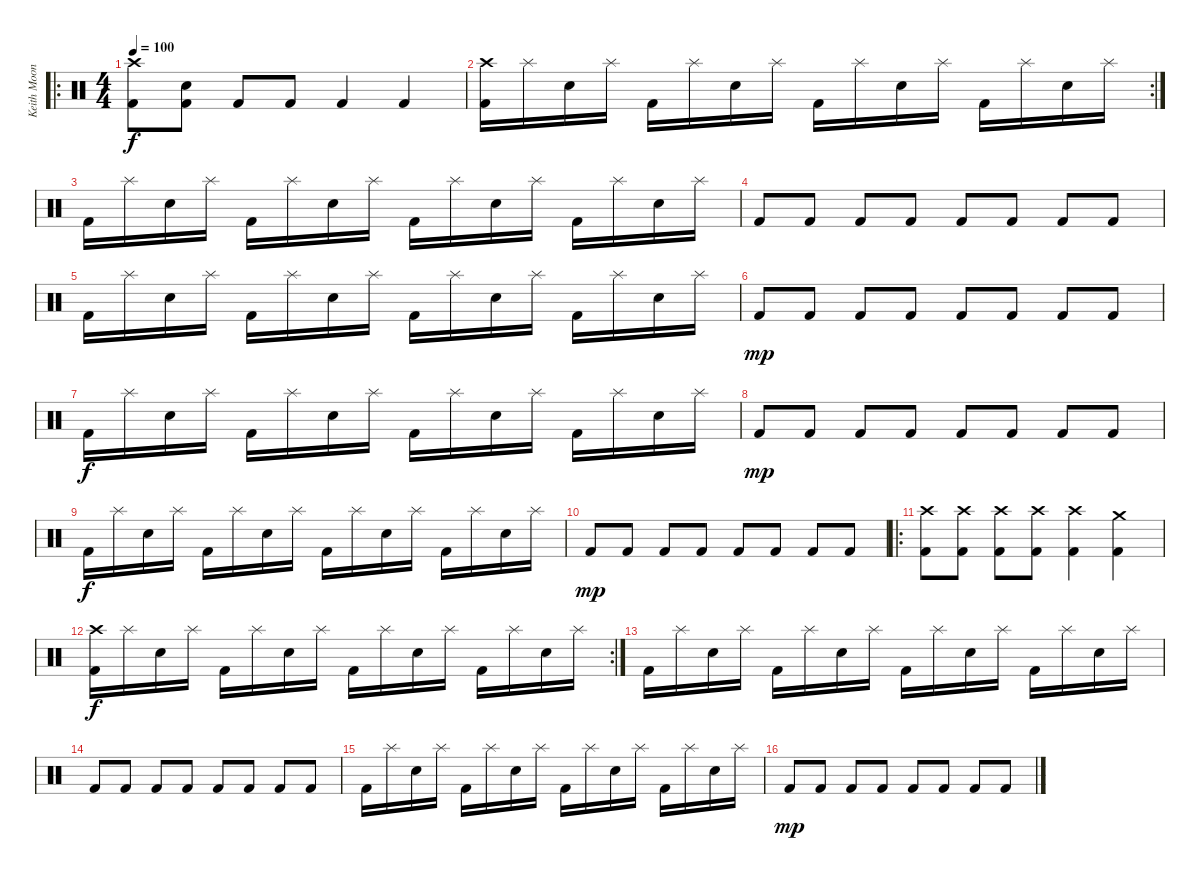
\track ("Keith Moon - Drums" "Keith Moon") {instrument percussion}
\staff {score}
\articulation defaults
\ro
\ts (4 4)
\tempo 100
\clef neutral
\ks c
("Kick (hit) 2" "Crash high (hit)").8{dy f} ("Kick (hit) 2" "Electric Snare (hit)").8 "Kick (hit) 2".8 "Kick (hit) 2".8 "Kick (hit) 2".4 "Kick (hit) 2".4 |
\rc 2
("Kick (hit) 2" "Crash high (hit)").16 "Splash (hit)".16 "Electric Snare (hit)".16 "Splash (hit)".16 "Kick (hit) 2".16 "Splash (hit)".16 "Electric Snare (hit)".16 "Splash (hit)".16 "Kick (hit) 2".16 "Splash (hit)".16 "Electric Snare (hit)".16 "Splash (hit)".16 "Kick (hit) 2".16 "Splash (hit)".16 "Electric Snare (hit)".16 "Splash (hit)".16 |
"Kick (hit) 2".16 "Splash (hit)".16 "Electric Snare (hit)".16 "Splash (hit)".16 "Kick (hit) 2".16 "Splash (hit)".16 "Electric Snare (hit)".16 "Splash (hit)".16 "Kick (hit) 2".16 "Splash (hit)".16 "Electric Snare (hit)".16 "Splash (hit)".16 "Kick (hit) 2".16 "Splash (hit)".16 "Electric Snare (hit)".16 "Splash (hit)".16 |
"Kick (hit) 2".8 "Kick (hit) 2".8 "Kick (hit) 2".8 "Kick (hit) 2".8 "Kick (hit) 2".8 "Kick (hit) 2".8 "Kick (hit) 2".8 "Kick (hit) 2".8 |
"Kick (hit) 2".16 "Splash (hit)".16 "Electric Snare (hit)".16 "Splash (hit)".16 "Kick (hit) 2".16 "Splash (hit)".16 "Electric Snare (hit)".16 "Splash (hit)".16 "Kick (hit) 2".16 "Splash (hit)".16 "Electric Snare (hit)".16 "Splash (hit)".16 "Kick (hit) 2".16 "Splash (hit)".16 "Electric Snare (hit)".16 "Splash (hit)".16 |
"Kick (hit) 2".8{dy mp} "Kick (hit) 2".8 "Kick (hit) 2".8 "Kick (hit) 2".8 "Kick (hit) 2".8 "Kick (hit) 2".8 "Kick (hit) 2".8 "Kick (hit) 2".8 |
"Kick (hit) 2".16{dy f} "Splash (hit)".16 "Electric Snare (hit)".16 "Splash (hit)".16 "Kick (hit) 2".16 "Splash (hit)".16 "Electric Snare (hit)".16 "Splash (hit)".16 "Kick (hit) 2".16 "Splash (hit)".16 "Electric Snare (hit)".16 "Splash (hit)".16 "Kick (hit) 2".16 "Splash (hit)".16 "Electric Snare (hit)".16 "Splash (hit)".16 |
"Kick (hit) 2".8{dy mp} "Kick (hit) 2".8 "Kick (hit) 2".8 "Kick (hit) 2".8 "Kick (hit) 2".8 "Kick (hit) 2".8 "Kick (hit) 2".8 "Kick (hit) 2".8 |
"Kick (hit) 2".16{dy f} "Splash (hit)".16 "Electric Snare (hit)".16 "Splash (hit)".16 "Kick (hit) 2".16 "Splash (hit)".16 "Electric Snare (hit)".16 "Splash (hit)".16 "Kick (hit) 2".16 "Splash (hit)".16 "Electric Snare (hit)".16 "Splash (hit)".16 "Kick (hit) 2".16 "Splash (hit)".16 "Electric Snare (hit)".16 "Splash (hit)".16 |
"Kick (hit) 2".8{dy mp} "Kick (hit) 2".8 "Kick (hit) 2".8 "Kick (hit) 2".8 "Kick (hit) 2".8 "Kick (hit) 2".8 "Kick (hit) 2".8 "Kick (hit) 2".8 |
\ro
("Kick (hit) 2" "Crash high (hit)").8 ("Kick (hit) 2" "Crash high (hit)").8 ("Kick (hit) 2" "Crash high (hit)").8 ("Kick (hit) 2" "Crash high (hit)").8 ("Kick (hit) 2" "Crash high (hit)").4 ("Kick (hit) 2" "Crash medium (hit)").4 |
\rc 2
("Kick (hit) 2" "Crash high (hit)").16{dy f} "Splash (hit)".16 "Electric Snare (hit)".16 "Splash (hit)".16 "Kick (hit) 2".16 "Splash (hit)".16 "Electric Snare (hit)".16 "Splash (hit)".16 "Kick (hit) 2".16 "Splash (hit)".16 "Electric Snare (hit)".16 "Splash (hit)".16 "Kick (hit) 2".16 "Splash (hit)".16 "Electric Snare (hit)".16 "Splash (hit)".16 |
"Kick (hit) 2".16 "Splash (hit)".16 "Electric Snare (hit)".16 "Splash (hit)".16 "Kick (hit) 2".16 "Splash (hit)".16 "Electric Snare (hit)".16 "Splash (hit)".16 "Kick (hit) 2".16 "Splash (hit)".16 "Electric Snare (hit)".16 "Splash (hit)".16 "Kick (hit) 2".16 "Splash (hit)".16 "Electric Snare (hit)".16 "Splash (hit)".16 |
"Kick (hit) 2".8 "Kick (hit) 2".8 "Kick (hit) 2".8 "Kick (hit) 2".8 "Kick (hit) 2".8 "Kick (hit) 2".8 "Kick (hit) 2".8 "Kick (hit) 2".8 |
"Kick (hit) 2".16 "Splash (hit)".16 "Electric Snare (hit)".16 "Splash (hit)".16 "Kick (hit) 2".16 "Splash (hit)".16 "Electric Snare (hit)".16 "Splash (hit)".16 "Kick (hit) 2".16 "Splash (hit)".16 "Electric Snare (hit)".16 "Splash (hit)".16 "Kick (hit) 2".16 "Splash (hit)".16 "Electric Snare (hit)".16 "Splash (hit)".16 |
"Kick (hit) 2".8{dy mp} "Kick (hit) 2".8 "Kick (hit) 2".8 "Kick (hit) 2".8 "Kick (hit) 2".8 "Kick (hit) 2".8 "Kick (hit) 2".8 "Kick (hit) 2".8
